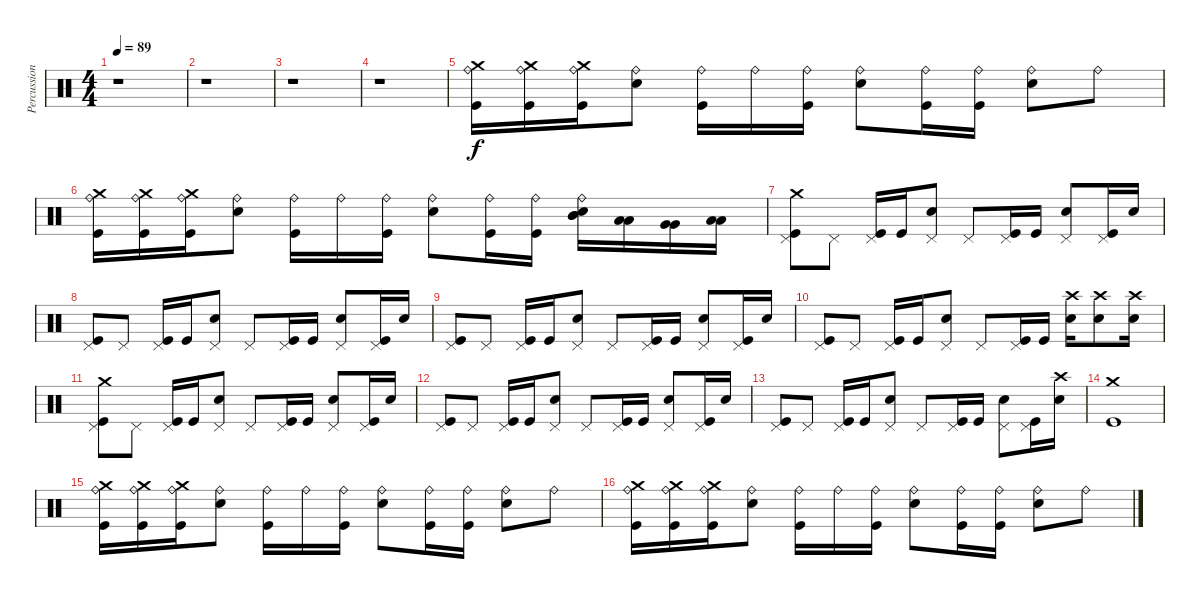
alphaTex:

\track ("Percussion" "Percussion") {instrument percussion}
\staff {score}
\articulation defaults
\ts (4 4)
\tempo 89
\clef neutral
\ks c
r.1{dy f} |
r.1 |
r.1 |
r.1 |
("Ride (bell)" "Crash medium (hit)" "Kick (hit)").16 ("Ride (bell)" "Crash medium (hit)" "Kick (hit)").16 ("Ride (bell)" "Crash medium (hit)" "Kick (hit)").16 ("Ride (bell)" "Snare (hit) 2").8 ("Ride (bell)" "Kick (hit)").16 "Ride (bell)".16 ("Ride (bell)" "Kick (hit)").16 ("Ride (bell)" "Snare (hit) 2").8 ("Ride (bell)" "Kick (hit)").16 ("Ride (bell)" "Kick (hit)").16 ("Ride (bell)" "Snare (hit) 2").8 "Ride (bell)".8 |
("Ride (bell)" "Crash medium (hit)" "Kick (hit)").16 ("Ride (bell)" "Crash medium (hit)" "Kick (hit)").16 ("Ride (bell)" "Crash medium (hit)" "Kick (hit)").16 ("Ride (bell)" "Snare (hit) 2").8 ("Ride (bell)" "Kick (hit)").16 "Ride (bell)".16 ("Ride (bell)" "Kick (hit)").16 ("Ride (bell)" "Snare (hit) 2").8 ("Ride (bell)" "Kick (hit)").16 ("Ride (bell)" "Kick (hit)").16 ("Ride (bell)" "Snare (hit) 2" "Mid Tom (hit)" "Mid Tom (hit)").16 ("Low Tom (hit)" "Low Tom (hit)").16 ("Very Low Tom (hit)" "Very Low Tom (hit)").16 ("Low Floor Tom (hit)" "Low Floor Tom (hit)").16 |
("Crash medium (hit)" "Pedal Hi-Hat (hit)" "Kick (hit)").8 "Pedal Hi-Hat (hit)".8 ("Pedal Hi-Hat (hit)" "Kick (hit)").16 "Kick (hit)".16 ("Pedal Hi-Hat (hit)" "Snare (hit) 2").8 "Pedal Hi-Hat (hit)".8 ("Pedal Hi-Hat (hit)" "Kick (hit)").16 "Kick (hit)".16 ("Pedal Hi-Hat (hit)" "Snare (hit) 2").8 ("Pedal Hi-Hat (hit)" "Kick (hit)").16 "Snare (hit) 2".16 |
("Pedal Hi-Hat (hit)" "Kick (hit)").8 "Pedal Hi-Hat (hit)".8 ("Pedal Hi-Hat (hit)" "Kick (hit)").16 "Kick (hit)".16 ("Pedal Hi-Hat (hit)" "Snare (hit) 2").8 "Pedal Hi-Hat (hit)".8 ("Pedal Hi-Hat (hit)" "Kick (hit)").16 "Kick (hit)".16 ("Pedal Hi-Hat (hit)" "Snare (hit) 2").8 ("Pedal Hi-Hat (hit)" "Kick (hit)").16 "Snare (hit) 2".16 |
("Pedal Hi-Hat (hit)" "Kick (hit)").8 "Pedal Hi-Hat (hit)".8 ("Pedal Hi-Hat (hit)" "Kick (hit)").16 "Kick (hit)".16 ("Pedal Hi-Hat (hit)" "Snare (hit) 2").8 "Pedal Hi-Hat (hit)".8 ("Pedal Hi-Hat (hit)" "Kick (hit)").16 "Kick (hit)".16 ("Pedal Hi-Hat (hit)" "Snare (hit) 2").8 ("Pedal Hi-Hat (hit)" "Kick (hit)").16 "Snare (hit) 2".16 |
("Pedal Hi-Hat (hit)" "Kick (hit)").8 "Pedal Hi-Hat (hit)".8 ("Pedal Hi-Hat (hit)" "Kick (hit)").16 "Kick (hit)".16 ("Pedal Hi-Hat (hit)" "Snare (hit) 2").8 "Pedal Hi-Hat (hit)".8 ("Pedal Hi-Hat (hit)" "Kick (hit)").16 "Kick (hit)".16 ("Crash high (hit)" "Snare (hit) 2").16 ("Crash high (hit)" "Snare (hit) 2").8 ("Crash high (hit)" "Snare (hit) 2").16 |
("Crash medium (hit)" "Pedal Hi-Hat (hit)" "Kick (hit)").8 "Pedal Hi-Hat (hit)".8 ("Pedal Hi-Hat (hit)" "Kick (hit)").16 "Kick (hit)".16 ("Pedal Hi-Hat (hit)" "Snare (hit) 2").8 "Pedal Hi-Hat (hit)".8 ("Pedal Hi-Hat (hit)" "Kick (hit)").16 "Kick (hit)".16 ("Pedal Hi-Hat (hit)" "Snare (hit) 2").8 ("Pedal Hi-Hat (hit)" "Kick (hit)").16 "Snare (hit) 2".16 |
("Pedal Hi-Hat (hit)" "Kick (hit)").8 "Pedal Hi-Hat (hit)".8 ("Pedal Hi-Hat (hit)" "Kick (hit)").16 "Kick (hit)".16 ("Pedal Hi-Hat (hit)" "Snare (hit) 2").8 "Pedal Hi-Hat (hit)".8 ("Pedal Hi-Hat (hit)" "Kick (hit)").16 "Kick (hit)".16 ("Pedal Hi-Hat (hit)" "Snare (hit) 2").8 ("Pedal Hi-Hat (hit)" "Kick (hit)").16 "Snare (hit) 2".16 |
("Pedal Hi-Hat (hit)" "Kick (hit)").8 "Pedal Hi-Hat (hit)".8 ("Pedal Hi-Hat (hit)" "Kick (hit)").16 "Kick (hit)".16 ("Pedal Hi-Hat (hit)" "Snare (hit) 2").8 "Pedal Hi-Hat (hit)".8 ("Pedal Hi-Hat (hit)" "Kick (hit)").16 "Kick (hit)".16 ("Pedal Hi-Hat (hit)" "Snare (hit) 2").8 ("Pedal Hi-Hat (hit)" "Kick (hit)").16 ("Crash high (hit)" "Snare (hit) 2").16 |
("Crash medium (hit)" "Kick (hit)").1 |
("Ride (bell)" "Crash medium (hit)" "Kick (hit)").16 ("Ride (bell)" "Crash medium (hit)" "Kick (hit)").16 ("Ride (bell)" "Crash medium (hit)" "Kick (hit)").16 ("Ride (bell)" "Snare (hit) 2").8 ("Ride (bell)" "Kick (hit)").16 "Ride (bell)".16 ("Ride (bell)" "Kick (hit)").16 ("Ride (bell)" "Snare (hit) 2").8 ("Ride (bell)" "Kick (hit)").16 ("Ride (bell)" "Kick (hit)").16 ("Ride (bell)" "Snare (hit) 2").8 "Ride (bell)".8 |
("Ride (bell)" "Crash medium (hit)" "Kick (hit)").16 ("Ride (bell)" "Crash medium (hit)" "Kick (hit)").16 ("Ride (bell)" "Crash medium (hit)" "Kick (hit)").16 ("Ride (bell)" "Snare (hit) 2").8 ("Ride (bell)" "Kick (hit)").16 "Ride (bell)".16 ("Ride (bell)" "Kick (hit)").16 ("Ride (bell)" "Snare (hit) 2").8 ("Ride (bell)" "Kick (hit)").16 ("Ride (bell)" "Kick (hit)").16 ("Ride (bell)" "Snare (hit) 2").8 "Ride (bell)".8
